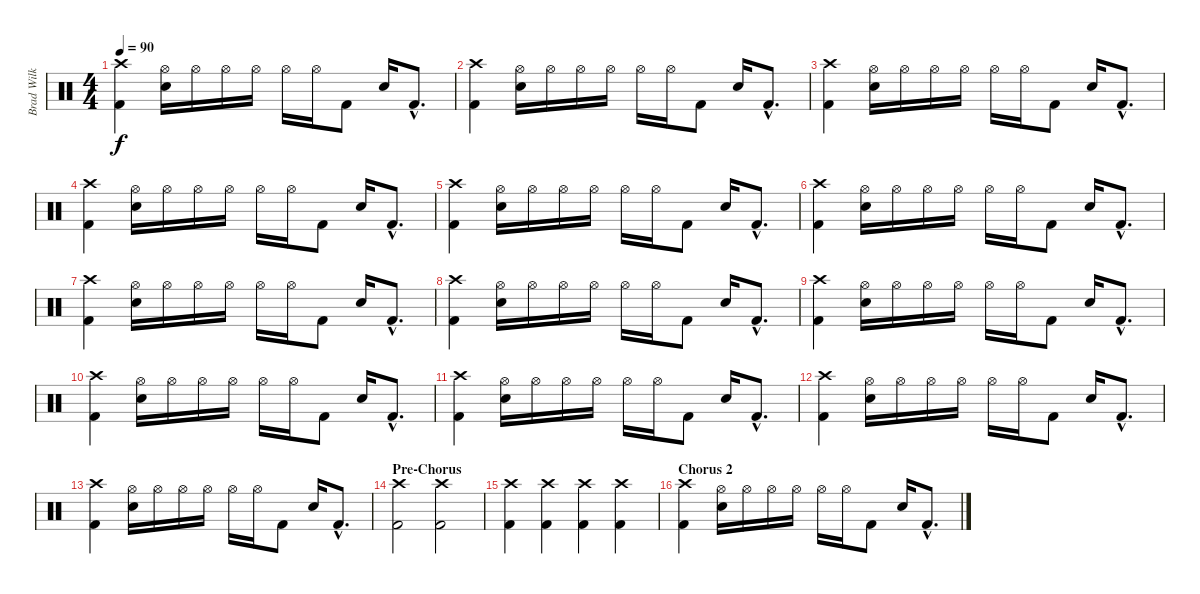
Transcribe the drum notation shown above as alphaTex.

\track ("Brad Wilk / Drums" "Brad Wilk ") {instrument percussion}
\staff {score}
\articulation defaults
\ts (4 4)
\tempo 90
\clef neutral
\ks c
("Crash high (hit)" "Kick (hit) 2").4{dy f} ("Hi-Hat (open)" "Electric Snare (hit)").16 "Hi-Hat (open)".16 "Hi-Hat (open)".16 "Hi-Hat (open)".16 "Hi-Hat (open)".16 "Hi-Hat (open)".16 "Kick (hit) 2".8 "Electric Snare (hit)".16 "Kick (hit) 2"{hac}.8{d} |
("Crash high (hit)" "Kick (hit) 2").4 ("Hi-Hat (open)" "Electric Snare (hit)").16 "Hi-Hat (open)".16 "Hi-Hat (open)".16 "Hi-Hat (open)".16 "Hi-Hat (open)".16 "Hi-Hat (open)".16 "Kick (hit) 2".8 "Electric Snare (hit)".16 "Kick (hit) 2"{hac}.8{d} |
("Crash high (hit)" "Kick (hit) 2").4 ("Hi-Hat (open)" "Electric Snare (hit)").16 "Hi-Hat (open)".16 "Hi-Hat (open)".16 "Hi-Hat (open)".16 "Hi-Hat (open)".16 "Hi-Hat (open)".16 "Kick (hit) 2".8 "Electric Snare (hit)".16 "Kick (hit) 2"{hac}.8{d} |
("Crash high (hit)" "Kick (hit) 2").4 ("Hi-Hat (open)" "Electric Snare (hit)").16 "Hi-Hat (open)".16 "Hi-Hat (open)".16 "Hi-Hat (open)".16 "Hi-Hat (open)".16 "Hi-Hat (open)".16 "Kick (hit) 2".8 "Electric Snare (hit)".16 "Kick (hit) 2"{hac}.8{d} |
("Crash high (hit)" "Kick (hit) 2").4 ("Hi-Hat (open)" "Electric Snare (hit)").16 "Hi-Hat (open)".16 "Hi-Hat (open)".16 "Hi-Hat (open)".16 "Hi-Hat (open)".16 "Hi-Hat (open)".16 "Kick (hit) 2".8 "Electric Snare (hit)".16 "Kick (hit) 2"{hac}.8{d} |
("Crash high (hit)" "Kick (hit) 2").4 ("Hi-Hat (open)" "Electric Snare (hit)").16 "Hi-Hat (open)".16 "Hi-Hat (open)".16 "Hi-Hat (open)".16 "Hi-Hat (open)".16 "Hi-Hat (open)".16 "Kick (hit) 2".8 "Electric Snare (hit)".16 "Kick (hit) 2"{hac}.8{d} |
("Crash high (hit)" "Kick (hit) 2").4 ("Hi-Hat (open)" "Electric Snare (hit)").16 "Hi-Hat (open)".16 "Hi-Hat (open)".16 "Hi-Hat (open)".16 "Hi-Hat (open)".16 "Hi-Hat (open)".16 "Kick (hit) 2".8 "Electric Snare (hit)".16 "Kick (hit) 2"{hac}.8{d} |
("Crash high (hit)" "Kick (hit) 2").4 ("Hi-Hat (open)" "Electric Snare (hit)").16 "Hi-Hat (open)".16 "Hi-Hat (open)".16 "Hi-Hat (open)".16 "Hi-Hat (open)".16 "Hi-Hat (open)".16 "Kick (hit) 2".8 "Electric Snare (hit)".16 "Kick (hit) 2"{hac}.8{d} |
("Crash high (hit)" "Kick (hit) 2").4 ("Hi-Hat (open)" "Electric Snare (hit)").16 "Hi-Hat (open)".16 "Hi-Hat (open)".16 "Hi-Hat (open)".16 "Hi-Hat (open)".16 "Hi-Hat (open)".16 "Kick (hit) 2".8 "Electric Snare (hit)".16 "Kick (hit) 2"{hac}.8{d} |
("Crash high (hit)" "Kick (hit) 2").4 ("Hi-Hat (open)" "Electric Snare (hit)").16 "Hi-Hat (open)".16 "Hi-Hat (open)".16 "Hi-Hat (open)".16 "Hi-Hat (open)".16 "Hi-Hat (open)".16 "Kick (hit) 2".8 "Electric Snare (hit)".16 "Kick (hit) 2"{hac}.8{d} |
("Crash high (hit)" "Kick (hit) 2").4 ("Hi-Hat (open)" "Electric Snare (hit)").16 "Hi-Hat (open)".16 "Hi-Hat (open)".16 "Hi-Hat (open)".16 "Hi-Hat (open)".16 "Hi-Hat (open)".16 "Kick (hit) 2".8 "Electric Snare (hit)".16 "Kick (hit) 2"{hac}.8{d} |
("Crash high (hit)" "Kick (hit) 2").4 ("Hi-Hat (open)" "Electric Snare (hit)").16 "Hi-Hat (open)".16 "Hi-Hat (open)".16 "Hi-Hat (open)".16 "Hi-Hat (open)".16 "Hi-Hat (open)".16 "Kick (hit) 2".8 "Electric Snare (hit)".16 "Kick (hit) 2"{hac}.8{d} |
("Crash high (hit)" "Kick (hit) 2").4 ("Hi-Hat (open)" "Electric Snare (hit)").16 "Hi-Hat (open)".16 "Hi-Hat (open)".16 "Hi-Hat (open)".16 "Hi-Hat (open)".16 "Hi-Hat (open)".16 "Kick (hit) 2".8 "Electric Snare (hit)".16 "Kick (hit) 2"{hac}.8{d} |
\section ("" "Pre-Chorus")
("Crash high (hit)" "Kick (hit) 2").2 ("Crash high (hit)" "Kick (hit) 2").2 |
("Crash high (hit)" "Kick (hit) 2").4 ("Crash high (hit)" "Kick (hit) 2").4 ("Crash high (hit)" "Kick (hit) 2").4 ("Crash high (hit)" "Kick (hit) 2").4 |
\section ("" "Chorus 2")
("Crash high (hit)" "Kick (hit) 2").4 ("Hi-Hat (open)" "Electric Snare (hit)").16 "Hi-Hat (open)".16 "Hi-Hat (open)".16 "Hi-Hat (open)".16 "Hi-Hat (open)".16 "Hi-Hat (open)".16 "Kick (hit) 2".8 "Electric Snare (hit)".16 "Kick (hit) 2"{hac}.8{d}
